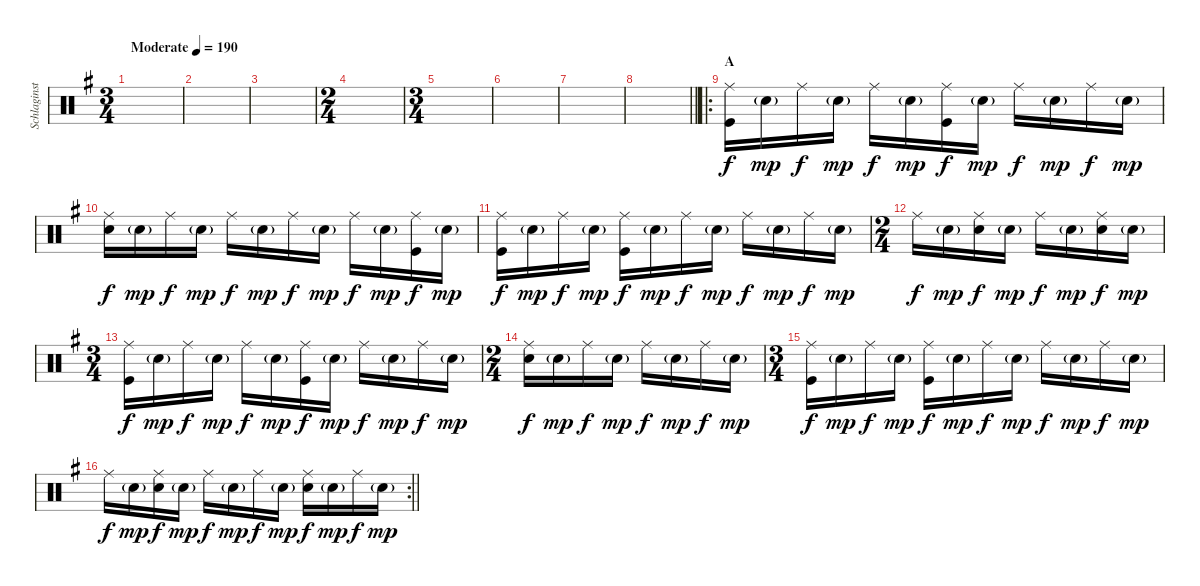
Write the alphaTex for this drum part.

\track ("Schlaginstrumente - Auswahl" "Schlaginst") {instrument percussion}
\staff {score}
\articulation defaults
\ts (3 4)
\tempo (190 "Moderate")
\clef neutral
\ks eminor
|
|
|
\ts (2 4)
|
\ts (3 4)
|
|
|
\barLineRight lightlight
|
\ro
\section ("" "A")
("Ride (middle)" "Kick (hit)").16 "Electric Snare (hit)"{g}.16{dy mp} "Ride (middle)".16{dy f} "Electric Snare (hit)"{g}.16{dy mp} "Ride (middle)".16{dy f} "Electric Snare (hit)"{g}.16{dy mp} ("Ride (middle)" "Kick (hit)").16{dy f} "Electric Snare (hit)"{g}.16{dy mp} "Ride (middle)".16{dy f} "Electric Snare (hit)"{g}.16{dy mp} "Ride (middle)".16{dy f} "Electric Snare (hit)"{g}.16{dy mp} |
("Ride (middle)" "Electric Snare (hit)").16{dy f} "Electric Snare (hit)"{g}.16{dy mp} "Ride (middle)".16{dy f} "Electric Snare (hit)"{g}.16{dy mp} "Ride (middle)".16{dy f} "Electric Snare (hit)"{g}.16{dy mp} "Ride (middle)".16{dy f} "Electric Snare (hit)"{g}.16{dy mp} "Ride (middle)".16{dy f} "Electric Snare (hit)"{g}.16{dy mp} ("Ride (middle)" "Kick (hit)").16{dy f} "Electric Snare (hit)"{g}.16{dy mp} |
("Ride (middle)" "Kick (hit)").16{dy f} "Electric Snare (hit)"{g}.16{dy mp} "Ride (middle)".16{dy f} "Electric Snare (hit)"{g}.16{dy mp} ("Ride (middle)" "Kick (hit)").16{dy f} "Electric Snare (hit)"{g}.16{dy mp} "Ride (middle)".16{dy f} "Electric Snare (hit)"{g}.16{dy mp} "Ride (middle)".16{dy f} "Electric Snare (hit)"{g}.16{dy mp} "Ride (middle)".16{dy f} "Electric Snare (hit)"{g}.16{dy mp} |
\ts (2 4)
"Ride (middle)".16{dy f} "Electric Snare (hit)"{g}.16{dy mp} ("Ride (middle)" "Electric Snare (hit)").16{dy f} "Electric Snare (hit)"{g}.16{dy mp} "Ride (middle)".16{dy f} "Electric Snare (hit)"{g}.16{dy mp} ("Ride (middle)" "Electric Snare (hit)").16{dy f} "Electric Snare (hit)"{g}.16{dy mp} |
\ts (3 4)
("Ride (middle)" "Kick (hit)").16{dy f} "Electric Snare (hit)"{g}.16{dy mp} "Ride (middle)".16{dy f} "Electric Snare (hit)"{g}.16{dy mp} "Ride (middle)".16{dy f} "Electric Snare (hit)"{g}.16{dy mp} ("Ride (middle)" "Kick (hit)").16{dy f} "Electric Snare (hit)"{g}.16{dy mp} "Ride (middle)".16{dy f} "Electric Snare (hit)"{g}.16{dy mp} "Ride (middle)".16{dy f} "Electric Snare (hit)"{g}.16{dy mp} |
\ts (2 4)
("Ride (middle)" "Electric Snare (hit)").16{dy f} "Electric Snare (hit)"{g}.16{dy mp} "Ride (middle)".16{dy f} "Electric Snare (hit)"{g}.16{dy mp} "Ride (middle)".16{dy f} "Electric Snare (hit)"{g}.16{dy mp} "Ride (middle)".16{dy f} "Electric Snare (hit)"{g}.16{dy mp} |
\ts (3 4)
("Ride (middle)" "Kick (hit)").16{dy f} "Electric Snare (hit)"{g}.16{dy mp} "Ride (middle)".16{dy f} "Electric Snare (hit)"{g}.16{dy mp} ("Ride (middle)" "Kick (hit)").16{dy f} "Electric Snare (hit)"{g}.16{dy mp} "Ride (middle)".16{dy f} "Electric Snare (hit)"{g}.16{dy mp} "Ride (middle)".16{dy f} "Electric Snare (hit)"{g}.16{dy mp} "Ride (middle)".16{dy f} "Electric Snare (hit)"{g}.16{dy mp} |
\rc 2
\barLineRight lightlight "Ride (middle)".16{dy f} "Electric Snare (hit)"{g}.16{dy mp}
("Ride (middle)" "Electric Snare (hit)").16{dy f} "Electric Snare (hit)"{g}.16{dy mp} "Ride (middle)".16{dy f} "Electric Snare (hit)"{g}.16{dy mp} "Ride (middle)".16{dy f} "Electric Snare (hit)"{g}.16{dy mp} ("Ride (middle)" "Electric Snare (hit)").16{dy f} "Electric Snare (hit)"{g}.16{dy mp} "Ride (middle)".16{dy f} "Electric Snare (hit)"{g}.16{dy mp}
